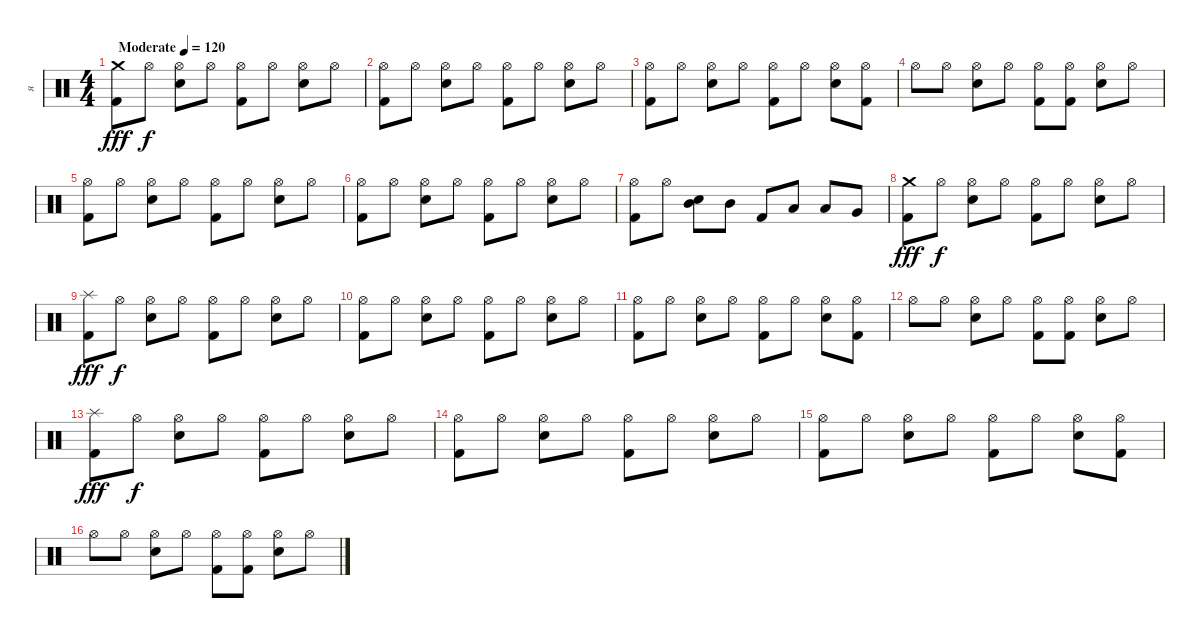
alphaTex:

\track ("я" "я") {instrument percussion}
\staff {score}
\articulation defaults
\ts (4 4)
\tempo (120 "Moderate")
\clef neutral
\ks c
("Kick (hit) 2" "Crash medium (hit)").8{dy fff} "Hi-Hat (open)".8{dy f} ("Snare (hit) 2" "Hi-Hat (open)").8 "Hi-Hat (open)".8 ("Kick (hit) 2" "Hi-Hat (open)").8 "Hi-Hat (open)".8 ("Snare (hit) 2" "Hi-Hat (open)").8 "Hi-Hat (open)".8 |
("Kick (hit) 2" "Hi-Hat (open)").8 "Hi-Hat (open)".8 ("Snare (hit) 2" "Hi-Hat (open)").8 "Hi-Hat (open)".8 ("Kick (hit) 2" "Hi-Hat (open)").8 "Hi-Hat (open)".8 ("Snare (hit) 2" "Hi-Hat (open)").8 "Hi-Hat (open)".8 |
("Kick (hit) 2" "Hi-Hat (open)").8 "Hi-Hat (open)".8 ("Snare (hit) 2" "Hi-Hat (open)").8 "Hi-Hat (open)".8 ("Kick (hit) 2" "Hi-Hat (open)").8 "Hi-Hat (open)".8 ("Snare (hit) 2" "Hi-Hat (open)").8 ("Kick (hit) 2" "Hi-Hat (open)").8 |
"Hi-Hat (open)".8 "Hi-Hat (open)".8 ("Snare (hit) 2" "Hi-Hat (open)").8 "Hi-Hat (open)".8 ("Kick (hit) 2" "Hi-Hat (open)").8 ("Kick (hit) 2" "Hi-Hat (open)").8 ("Snare (hit) 2" "Hi-Hat (open)").8 "Hi-Hat (open)".8 |
("Kick (hit) 2" "Hi-Hat (open)").8 "Hi-Hat (open)".8 ("Snare (hit) 2" "Hi-Hat (open)").8 "Hi-Hat (open)".8 ("Kick (hit) 2" "Hi-Hat (open)").8 "Hi-Hat (open)".8 ("Snare (hit) 2" "Hi-Hat (open)").8 "Hi-Hat (open)".8 |
("Kick (hit) 2" "Hi-Hat (open)").8 "Hi-Hat (open)".8 ("Snare (hit) 2" "Hi-Hat (open)").8 "Hi-Hat (open)".8 ("Kick (hit) 2" "Hi-Hat (open)").8 "Hi-Hat (open)".8 ("Snare (hit) 2" "Hi-Hat (open)").8 "Hi-Hat (open)".8 |
("Kick (hit) 2" "Hi-Hat (open)").8 "Hi-Hat (open)".8 ("Snare (hit) 2" "Mid Tom (hit)").8 "Mid Tom (hit)".8 "Kick (hit) 2".8 "Low Tom (hit)".8 "Low Tom (hit)".8 "Very Low Tom (hit)".8 |
("Kick (hit) 2" "Crash medium (hit)").8{dy fff} "Hi-Hat (open)".8{dy f} ("Snare (hit) 2" "Hi-Hat (open)").8 "Hi-Hat (open)".8 ("Kick (hit) 2" "Hi-Hat (open)").8 "Hi-Hat (open)".8 ("Snare (hit) 2" "Hi-Hat (open)").8 "Hi-Hat (open)".8 |
("Kick (hit) 2" "Splash (hit)").8{dy fff} "Hi-Hat (open)".8{dy f} ("Snare (hit) 2" "Hi-Hat (open)").8 "Hi-Hat (open)".8 ("Kick (hit) 2" "Hi-Hat (open)").8 "Hi-Hat (open)".8 ("Snare (hit) 2" "Hi-Hat (open)").8 "Hi-Hat (open)".8 |
("Kick (hit) 2" "Hi-Hat (open)").8 "Hi-Hat (open)".8 ("Snare (hit) 2" "Hi-Hat (open)").8 "Hi-Hat (open)".8 ("Kick (hit) 2" "Hi-Hat (open)").8 "Hi-Hat (open)".8 ("Snare (hit) 2" "Hi-Hat (open)").8 "Hi-Hat (open)".8 |
("Kick (hit) 2" "Hi-Hat (open)").8 "Hi-Hat (open)".8 ("Snare (hit) 2" "Hi-Hat (open)").8 "Hi-Hat (open)".8 ("Kick (hit) 2" "Hi-Hat (open)").8 "Hi-Hat (open)".8 ("Snare (hit) 2" "Hi-Hat (open)").8 ("Kick (hit) 2" "Hi-Hat (open)").8 |
"Hi-Hat (open)".8 "Hi-Hat (open)".8 ("Snare (hit) 2" "Hi-Hat (open)").8 "Hi-Hat (open)".8 ("Kick (hit) 2" "Hi-Hat (open)").8 ("Kick (hit) 2" "Hi-Hat (open)").8 ("Snare (hit) 2" "Hi-Hat (open)").8 "Hi-Hat (open)".8 |
("Kick (hit) 2" "Splash (hit)").8{dy fff} "Hi-Hat (open)".8{dy f} ("Snare (hit) 2" "Hi-Hat (open)").8 "Hi-Hat (open)".8 ("Kick (hit) 2" "Hi-Hat (open)").8 "Hi-Hat (open)".8 ("Snare (hit) 2" "Hi-Hat (open)").8 "Hi-Hat (open)".8 |
("Kick (hit) 2" "Hi-Hat (open)").8 "Hi-Hat (open)".8 ("Snare (hit) 2" "Hi-Hat (open)").8 "Hi-Hat (open)".8 ("Kick (hit) 2" "Hi-Hat (open)").8 "Hi-Hat (open)".8 ("Snare (hit) 2" "Hi-Hat (open)").8 "Hi-Hat (open)".8 |
("Kick (hit) 2" "Hi-Hat (open)").8 "Hi-Hat (open)".8 ("Snare (hit) 2" "Hi-Hat (open)").8 "Hi-Hat (open)".8 ("Kick (hit) 2" "Hi-Hat (open)").8 "Hi-Hat (open)".8 ("Snare (hit) 2" "Hi-Hat (open)").8 ("Kick (hit) 2" "Hi-Hat (open)").8 |
"Hi-Hat (open)".8 "Hi-Hat (open)".8 ("Snare (hit) 2" "Hi-Hat (open)").8 "Hi-Hat (open)".8 ("Kick (hit) 2" "Hi-Hat (open)").8 ("Kick (hit) 2" "Hi-Hat (open)").8 ("Snare (hit) 2" "Hi-Hat (open)").8 "Hi-Hat (open)".8
